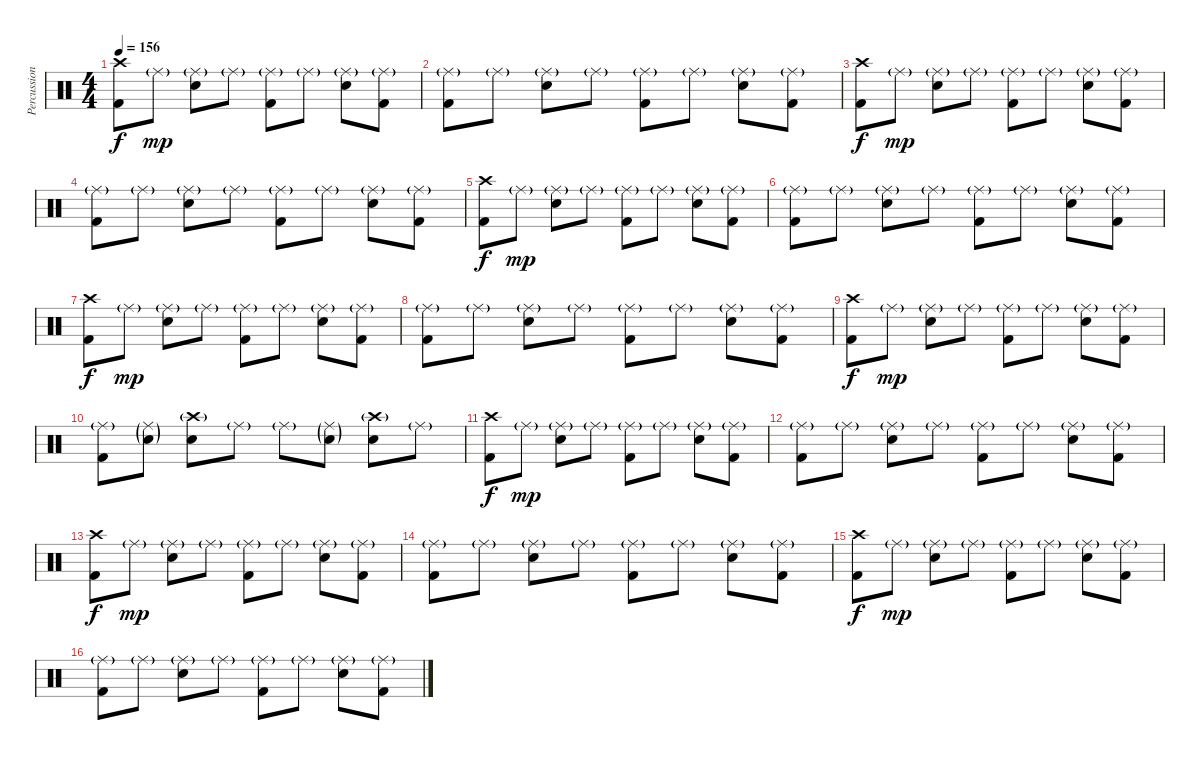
\track ("Percussion" "Percussion") {instrument percussion}
\staff {score}
\articulation defaults
\ts (4 4)
\tempo 156
\clef neutral
\ks c
("Crash high (hit)" "Kick (hit) 2").8{dy f} "Ride (middle)"{g}.8{dy mp} ("Ride (middle)"{g} "Electric Snare (hit)").8 "Ride (middle)"{g}.8 ("Ride (middle)"{g} "Kick (hit) 2").8 "Ride (middle)"{g}.8 ("Ride (middle)"{g} "Electric Snare (hit)").8 ("Ride (middle)"{g} "Kick (hit) 2").8 |
("Ride (middle)"{g} "Kick (hit) 2").8 "Ride (middle)"{g}.8 ("Ride (middle)"{g} "Electric Snare (hit)").8 "Ride (middle)"{g}.8 ("Ride (middle)"{g} "Kick (hit) 2").8 "Ride (middle)"{g}.8 ("Ride (middle)"{g} "Electric Snare (hit)").8 ("Ride (middle)"{g} "Kick (hit) 2").8 |
("Crash high (hit)" "Kick (hit) 2").8{dy f} "Ride (middle)"{g}.8{dy mp} ("Ride (middle)"{g} "Electric Snare (hit)").8 "Ride (middle)"{g}.8 ("Ride (middle)"{g} "Kick (hit) 2").8 "Ride (middle)"{g}.8 ("Ride (middle)"{g} "Electric Snare (hit)").8 ("Ride (middle)"{g} "Kick (hit) 2").8 |
("Ride (middle)"{g} "Kick (hit) 2").8 "Ride (middle)"{g}.8 ("Ride (middle)"{g} "Electric Snare (hit)").8 "Ride (middle)"{g}.8 ("Ride (middle)"{g} "Kick (hit) 2").8 "Ride (middle)"{g}.8 ("Ride (middle)"{g} "Electric Snare (hit)").8 ("Ride (middle)"{g} "Kick (hit) 2").8 |
("Crash high (hit)" "Kick (hit) 2").8{dy f} "Ride (middle)"{g}.8{dy mp} ("Ride (middle)"{g} "Electric Snare (hit)").8 "Ride (middle)"{g}.8 ("Ride (middle)"{g} "Kick (hit) 2").8 "Ride (middle)"{g}.8 ("Ride (middle)"{g} "Electric Snare (hit)").8 ("Ride (middle)"{g} "Kick (hit) 2").8 |
("Ride (middle)"{g} "Kick (hit) 2").8 "Ride (middle)"{g}.8 ("Ride (middle)"{g} "Electric Snare (hit)").8 "Ride (middle)"{g}.8 ("Ride (middle)"{g} "Kick (hit) 2").8 "Ride (middle)"{g}.8 ("Ride (middle)"{g} "Electric Snare (hit)").8 ("Ride (middle)"{g} "Kick (hit) 2").8 |
("Crash high (hit)" "Kick (hit) 2").8{dy f} "Ride (middle)"{g}.8{dy mp} ("Ride (middle)"{g} "Electric Snare (hit)").8 "Ride (middle)"{g}.8 ("Ride (middle)"{g} "Kick (hit) 2").8 "Ride (middle)"{g}.8 ("Ride (middle)"{g} "Electric Snare (hit)").8 ("Ride (middle)"{g} "Kick (hit) 2").8 |
("Ride (middle)"{g} "Kick (hit) 2").8 "Ride (middle)"{g}.8 ("Ride (middle)"{g} "Electric Snare (hit)").8 "Ride (middle)"{g}.8 ("Ride (middle)"{g} "Kick (hit) 2").8 "Ride (middle)"{g}.8 ("Ride (middle)"{g} "Electric Snare (hit)").8 ("Ride (middle)"{g} "Kick (hit) 2").8 |
("Crash high (hit)" "Kick (hit) 2").8{dy f} "Ride (middle)"{g}.8{dy mp} ("Ride (middle)"{g} "Electric Snare (hit)").8 "Ride (middle)"{g}.8 ("Ride (middle)"{g} "Kick (hit) 2").8 "Ride (middle)"{g}.8 ("Ride (middle)"{g} "Electric Snare (hit)").8 ("Ride (middle)"{g} "Kick (hit) 2").8 |
("Ride (middle)"{g} "Kick (hit) 2").8 ("Ride (middle)"{g} "Electric Snare (hit)"{g}).8 ("Crash high (hit)"{g} "Electric Snare (hit)").8 "Ride (middle)"{g}.8 "Ride (middle)"{g}.8 ("Ride (middle)"{g} "Electric Snare (hit)"{g}).8 ("Crash high (hit)"{g} "Electric Snare (hit)").8 "Ride (middle)"{g}.8 |
("Crash high (hit)" "Kick (hit) 2").8{dy f} "Ride (middle)"{g}.8{dy mp} ("Ride (middle)"{g} "Electric Snare (hit)").8 "Ride (middle)"{g}.8 ("Ride (middle)"{g} "Kick (hit) 2").8 "Ride (middle)"{g}.8 ("Ride (middle)"{g} "Electric Snare (hit)").8 ("Ride (middle)"{g} "Kick (hit) 2").8 |
("Ride (middle)"{g} "Kick (hit) 2").8 "Ride (middle)"{g}.8 ("Ride (middle)"{g} "Electric Snare (hit)").8 "Ride (middle)"{g}.8 ("Ride (middle)"{g} "Kick (hit) 2").8 "Ride (middle)"{g}.8 ("Ride (middle)"{g} "Electric Snare (hit)").8 ("Ride (middle)"{g} "Kick (hit) 2").8 |
("Crash high (hit)" "Kick (hit) 2").8{dy f} "Ride (middle)"{g}.8{dy mp} ("Ride (middle)"{g} "Electric Snare (hit)").8 "Ride (middle)"{g}.8 ("Ride (middle)"{g} "Kick (hit) 2").8 "Ride (middle)"{g}.8 ("Ride (middle)"{g} "Electric Snare (hit)").8 ("Ride (middle)"{g} "Kick (hit) 2").8 |
("Ride (middle)"{g} "Kick (hit) 2").8 "Ride (middle)"{g}.8 ("Ride (middle)"{g} "Electric Snare (hit)").8 "Ride (middle)"{g}.8 ("Ride (middle)"{g} "Kick (hit) 2").8 "Ride (middle)"{g}.8 ("Ride (middle)"{g} "Electric Snare (hit)").8 ("Ride (middle)"{g} "Kick (hit) 2").8 |
("Crash high (hit)" "Kick (hit) 2").8{dy f} "Ride (middle)"{g}.8{dy mp} ("Ride (middle)"{g} "Electric Snare (hit)").8 "Ride (middle)"{g}.8 ("Ride (middle)"{g} "Kick (hit) 2").8 "Ride (middle)"{g}.8 ("Ride (middle)"{g} "Electric Snare (hit)").8 ("Ride (middle)"{g} "Kick (hit) 2").8 |
("Ride (middle)"{g} "Kick (hit) 2").8 "Ride (middle)"{g}.8 ("Ride (middle)"{g} "Electric Snare (hit)").8 "Ride (middle)"{g}.8 ("Ride (middle)"{g} "Kick (hit) 2").8 "Ride (middle)"{g}.8 ("Ride (middle)"{g} "Electric Snare (hit)").8 ("Ride (middle)"{g} "Kick (hit) 2").8
